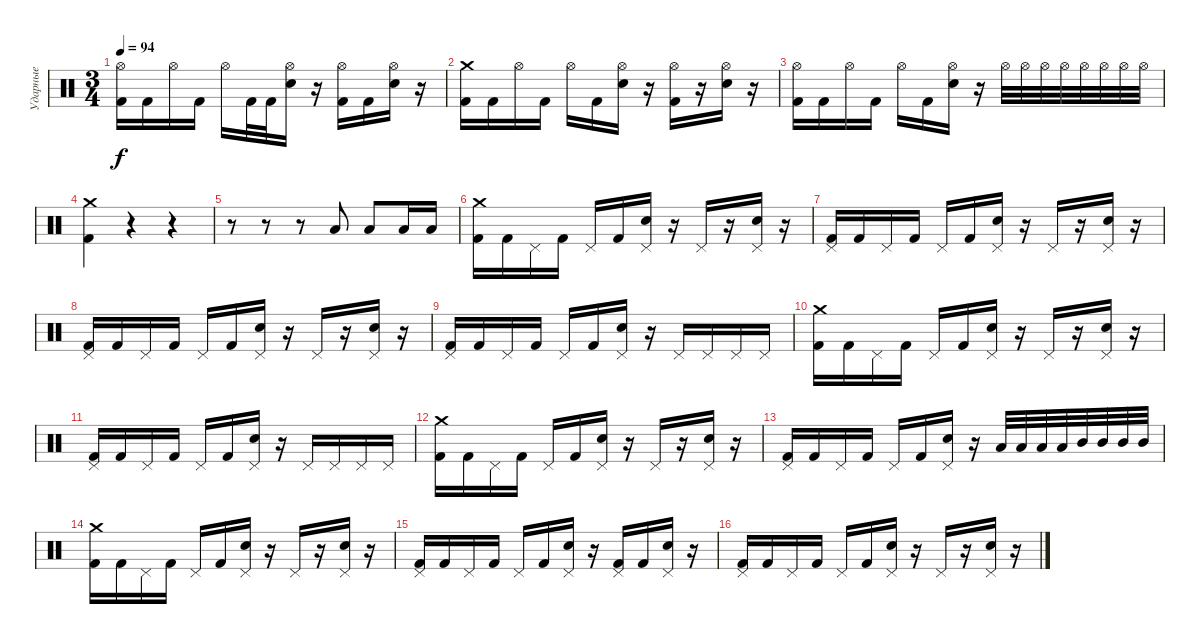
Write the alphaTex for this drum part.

\track ("Ударные" "Ударные") {instrument percussion}
\staff {score}
\articulation defaults
\ts (3 4)
\tempo 94
\clef neutral
\ks c
("Hi-Hat (open)" "Kick (hit) 2").16{dy f} "Kick (hit) 2".16 "Hi-Hat (open)".16 "Kick (hit) 2".16 "Hi-Hat (open)".16 "Kick (hit) 2".32 "Kick (hit) 2".32 ("Hi-Hat (open)" "Electric Snare (hit)").16 r.16 ("Hi-Hat (open)" "Kick (hit) 2").16 "Kick (hit) 2".16 ("Hi-Hat (open)" "Electric Snare (hit)").16 r.16 |
("Crash medium (hit)" "Kick (hit) 2").16 "Kick (hit) 2".16 "Hi-Hat (open)".16 "Kick (hit) 2".16 "Hi-Hat (open)".16 "Kick (hit) 2".16 ("Hi-Hat (open)" "Electric Snare (hit)").16 r.16 ("Hi-Hat (open)" "Kick (hit) 2").16 r.16 ("Hi-Hat (open)" "Electric Snare (hit)").16 r.16 |
("Hi-Hat (open)" "Kick (hit) 2").16 "Kick (hit) 2".16 "Hi-Hat (open)".16 "Kick (hit) 2".16 "Hi-Hat (open)".16 "Kick (hit) 2".16 ("Hi-Hat (open)" "Electric Snare (hit)").16 r.16 "Hi-Hat (open)".32 "Hi-Hat (open)".32 "Hi-Hat (open)".32 "Hi-Hat (open)".32 "Hi-Hat (open)".32 "Hi-Hat (open)".32 "Hi-Hat (open)".32 "Hi-Hat (open)".32 |
("Crash medium (hit)" "Kick (hit) 2").4 r.4 r.4 |
r.8 r.8 r.8 "Low Tom (hit)".8 "Low Tom (hit)".8 "Low Tom (hit)".16 "Low Tom (hit)".16 |
("Crash medium (hit)" "Kick (hit) 2").16 "Kick (hit) 2".16 "Pedal Hi-Hat (hit)".16 "Kick (hit) 2".16 "Pedal Hi-Hat (hit)".16 "Kick (hit) 2".16 ("Pedal Hi-Hat (hit)" "Electric Snare (hit)").16 r.16 "Pedal Hi-Hat (hit)".16 r.16 ("Pedal Hi-Hat (hit)" "Electric Snare (hit)").16 r.16 |
("Pedal Hi-Hat (hit)" "Kick (hit) 2").16 "Kick (hit) 2".16 "Pedal Hi-Hat (hit)".16 "Kick (hit) 2".16 "Pedal Hi-Hat (hit)".16 "Kick (hit) 2".16 ("Pedal Hi-Hat (hit)" "Electric Snare (hit)").16 r.16 "Pedal Hi-Hat (hit)".16 r.16 ("Pedal Hi-Hat (hit)" "Electric Snare (hit)").16 r.16 |
("Pedal Hi-Hat (hit)" "Kick (hit) 2").16 "Kick (hit) 2".16 "Pedal Hi-Hat (hit)".16 "Kick (hit) 2".16 "Pedal Hi-Hat (hit)".16 "Kick (hit) 2".16 ("Pedal Hi-Hat (hit)" "Electric Snare (hit)").16 r.16 "Pedal Hi-Hat (hit)".16 r.16 ("Pedal Hi-Hat (hit)" "Electric Snare (hit)").16 r.16 |
("Pedal Hi-Hat (hit)" "Kick (hit) 2").16 "Kick (hit) 2".16 "Pedal Hi-Hat (hit)".16 "Kick (hit) 2".16 "Pedal Hi-Hat (hit)".16 "Kick (hit) 2".16 ("Pedal Hi-Hat (hit)" "Electric Snare (hit)").16 r.16 "Pedal Hi-Hat (hit)".16 "Pedal Hi-Hat (hit)".16 "Pedal Hi-Hat (hit)".16 "Pedal Hi-Hat (hit)".16 |
("Crash medium (hit)" "Kick (hit) 2").16 "Kick (hit) 2".16 "Pedal Hi-Hat (hit)".16 "Kick (hit) 2".16 "Pedal Hi-Hat (hit)".16 "Kick (hit) 2".16 ("Pedal Hi-Hat (hit)" "Electric Snare (hit)").16 r.16 "Pedal Hi-Hat (hit)".16 r.16 ("Pedal Hi-Hat (hit)" "Electric Snare (hit)").16 r.16 |
("Pedal Hi-Hat (hit)" "Kick (hit) 2").16 "Kick (hit) 2".16 "Pedal Hi-Hat (hit)".16 "Kick (hit) 2".16 "Pedal Hi-Hat (hit)".16 "Kick (hit) 2".16 ("Pedal Hi-Hat (hit)" "Electric Snare (hit)").16 r.16 "Pedal Hi-Hat (hit)".16 "Pedal Hi-Hat (hit)".16 "Pedal Hi-Hat (hit)".16 "Pedal Hi-Hat (hit)".16 |
("Crash medium (hit)" "Kick (hit) 2").16 "Kick (hit) 2".16 "Pedal Hi-Hat (hit)".16 "Kick (hit) 2".16 "Pedal Hi-Hat (hit)".16 "Kick (hit) 2".16 ("Pedal Hi-Hat (hit)" "Electric Snare (hit)").16 r.16 "Pedal Hi-Hat (hit)".16 r.16 ("Pedal Hi-Hat (hit)" "Electric Snare (hit)").16 r.16 |
("Pedal Hi-Hat (hit)" "Kick (hit) 2").16 "Kick (hit) 2".16 "Pedal Hi-Hat (hit)".16 "Kick (hit) 2".16 "Pedal Hi-Hat (hit)".16 "Kick (hit) 2".16 ("Pedal Hi-Hat (hit)" "Electric Snare (hit)").16 r.16 "Low Tom (hit)".32 "Low Tom (hit)".32 "Low Tom (hit)".32 "Low Tom (hit)".32 "Mid Tom (hit)".32 "Mid Tom (hit)".32 "Mid Tom (hit)".32 "Mid Tom (hit)".32 |
("Crash medium (hit)" "Kick (hit) 2").16 "Kick (hit) 2".16 "Pedal Hi-Hat (hit)".16 "Kick (hit) 2".16 "Pedal Hi-Hat (hit)".16 "Kick (hit) 2".16 ("Pedal Hi-Hat (hit)" "Electric Snare (hit)").16 r.16 "Pedal Hi-Hat (hit)".16 r.16 ("Pedal Hi-Hat (hit)" "Electric Snare (hit)").16 r.16 |
("Pedal Hi-Hat (hit)" "Kick (hit) 2").16 "Kick (hit) 2".16 "Pedal Hi-Hat (hit)".16 "Kick (hit) 2".16 "Pedal Hi-Hat (hit)".16 "Kick (hit) 2".16 ("Pedal Hi-Hat (hit)" "Electric Snare (hit)").16 r.16 ("Pedal Hi-Hat (hit)" "Kick (hit) 2").16 "Kick (hit) 2".16 ("Pedal Hi-Hat (hit)" "Electric Snare (hit)").16 r.16 |
("Pedal Hi-Hat (hit)" "Kick (hit) 2").16 "Kick (hit) 2".16 "Pedal Hi-Hat (hit)".16 "Kick (hit) 2".16 "Pedal Hi-Hat (hit)".16 "Kick (hit) 2".16 ("Pedal Hi-Hat (hit)" "Electric Snare (hit)").16 r.16 "Pedal Hi-Hat (hit)".16 r.16 ("Pedal Hi-Hat (hit)" "Electric Snare (hit)").16 r.16
